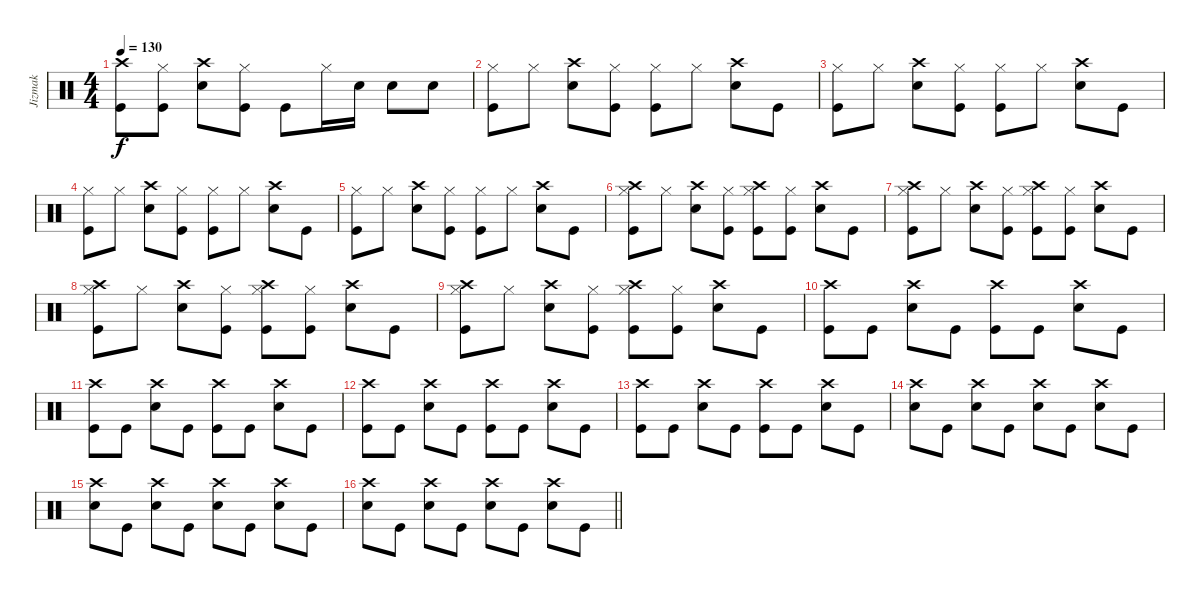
\track ("Jizmak" "Jizmak") {instrument percussion}
\staff {score}
\articulation defaults
\ts (4 4)
\tempo 130
\clef neutral
\ks c
("Crash high (hit)" "Kick (hit)").8{dy f} ("Hi-Hat (closed)" "Kick (hit)").8 ("Crash high (hit)" "Snare (hit) 2").8 ("Hi-Hat (closed)" "Kick (hit)").8 "Kick (hit)".8 "Hi-Hat (closed)".16 "Snare (hit) 2".16 "Snare (hit) 2".8 "Snare (hit) 2".8 |
("Hi-Hat (closed)" "Kick (hit)").8 "Hi-Hat (closed)".8 ("Crash high (hit)" "Snare (hit) 2").8 ("Hi-Hat (closed)" "Kick (hit)").8 ("Hi-Hat (closed)" "Kick (hit)").8 "Hi-Hat (closed)".8 ("Crash high (hit)" "Snare (hit) 2").8 "Kick (hit)".8 |
("Hi-Hat (closed)" "Kick (hit)").8 "Hi-Hat (closed)".8 ("Crash high (hit)" "Snare (hit) 2").8 ("Hi-Hat (closed)" "Kick (hit)").8 ("Hi-Hat (closed)" "Kick (hit)").8 "Hi-Hat (closed)".8 ("Crash high (hit)" "Snare (hit) 2").8 "Kick (hit)".8 |
("Hi-Hat (closed)" "Kick (hit)").8 "Hi-Hat (closed)".8 ("Crash high (hit)" "Snare (hit) 2").8 ("Hi-Hat (closed)" "Kick (hit)").8 ("Hi-Hat (closed)" "Kick (hit)").8 "Hi-Hat (closed)".8 ("Crash high (hit)" "Snare (hit) 2").8 "Kick (hit)".8 |
("Hi-Hat (closed)" "Kick (hit)").8 "Hi-Hat (closed)".8 ("Crash high (hit)" "Snare (hit) 2").8 ("Hi-Hat (closed)" "Kick (hit)").8 ("Hi-Hat (closed)" "Kick (hit)").8 "Hi-Hat (closed)".8 ("Crash high (hit)" "Snare (hit) 2").8 "Kick (hit)".8 |
("Crash high (hit)" "Hi-Hat (closed)" "Kick (hit)").8 "Hi-Hat (closed)".8 ("Crash high (hit)" "Snare (hit) 2").8 ("Hi-Hat (closed)" "Kick (hit)").8 ("Crash high (hit)" "Hi-Hat (closed)" "Kick (hit)").8 ("Hi-Hat (closed)" "Kick (hit)").8 ("Crash high (hit)" "Snare (hit) 2").8 "Kick (hit)".8 |
("Crash high (hit)" "Hi-Hat (closed)" "Kick (hit)").8 "Hi-Hat (closed)".8 ("Crash high (hit)" "Snare (hit) 2").8 ("Hi-Hat (closed)" "Kick (hit)").8 ("Crash high (hit)" "Hi-Hat (closed)" "Kick (hit)").8 ("Hi-Hat (closed)" "Kick (hit)").8 ("Crash high (hit)" "Snare (hit) 2").8 "Kick (hit)".8 |
("Crash high (hit)" "Hi-Hat (closed)" "Kick (hit)").8 "Hi-Hat (closed)".8 ("Crash high (hit)" "Snare (hit) 2").8 ("Hi-Hat (closed)" "Kick (hit)").8 ("Crash high (hit)" "Hi-Hat (closed)" "Kick (hit)").8 ("Hi-Hat (closed)" "Kick (hit)").8 ("Crash high (hit)" "Snare (hit) 2").8 "Kick (hit)".8 |
("Crash high (hit)" "Hi-Hat (closed)" "Kick (hit)").8 "Hi-Hat (closed)".8 ("Crash high (hit)" "Snare (hit) 2").8 ("Hi-Hat (closed)" "Kick (hit)").8 ("Crash high (hit)" "Hi-Hat (closed)" "Kick (hit)").8 ("Hi-Hat (closed)" "Kick (hit)").8 ("Crash high (hit)" "Snare (hit) 2").8 "Kick (hit)".8 |
("Crash high (hit)" "Kick (hit)").8 "Kick (hit)".8 ("Crash high (hit)" "Snare (hit) 2").8 "Kick (hit)".8 ("Crash high (hit)" "Kick (hit)").8 "Kick (hit)".8 ("Crash high (hit)" "Snare (hit) 2").8 "Kick (hit)".8 |
("Crash high (hit)" "Kick (hit)").8 "Kick (hit)".8 ("Crash high (hit)" "Snare (hit) 2").8 "Kick (hit)".8 ("Crash high (hit)" "Kick (hit)").8 "Kick (hit)".8 ("Crash high (hit)" "Snare (hit) 2").8 "Kick (hit)".8 |
("Crash high (hit)" "Kick (hit)").8 "Kick (hit)".8 ("Crash high (hit)" "Snare (hit) 2").8 "Kick (hit)".8 ("Crash high (hit)" "Kick (hit)").8 "Kick (hit)".8 ("Crash high (hit)" "Snare (hit) 2").8 "Kick (hit)".8 |
("Crash high (hit)" "Kick (hit)").8 "Kick (hit)".8 ("Crash high (hit)" "Snare (hit) 2").8 "Kick (hit)".8 ("Crash high (hit)" "Kick (hit)").8 "Kick (hit)".8 ("Crash high (hit)" "Snare (hit) 2").8 "Kick (hit)".8 |
("Crash high (hit)" "Snare (hit) 2").8 "Kick (hit)".8 ("Crash high (hit)" "Snare (hit) 2").8 "Kick (hit)".8 ("Crash high (hit)" "Snare (hit) 2").8 "Kick (hit)".8 ("Crash high (hit)" "Snare (hit) 2").8 "Kick (hit)".8 |
("Crash high (hit)" "Snare (hit) 2").8 "Kick (hit)".8 ("Crash high (hit)" "Snare (hit) 2").8 "Kick (hit)".8 ("Crash high (hit)" "Snare (hit) 2").8 "Kick (hit)".8 ("Crash high (hit)" "Snare (hit) 2").8 "Kick (hit)".8 |
\barLineRight lightlight
("Crash high (hit)" "Snare (hit) 2").8 "Kick (hit)".8 ("Crash high (hit)" "Snare (hit) 2").8 "Kick (hit)".8 ("Crash high (hit)" "Snare (hit) 2").8 "Kick (hit)".8 ("Crash high (hit)" "Snare (hit) 2").8 "Kick (hit)".8
